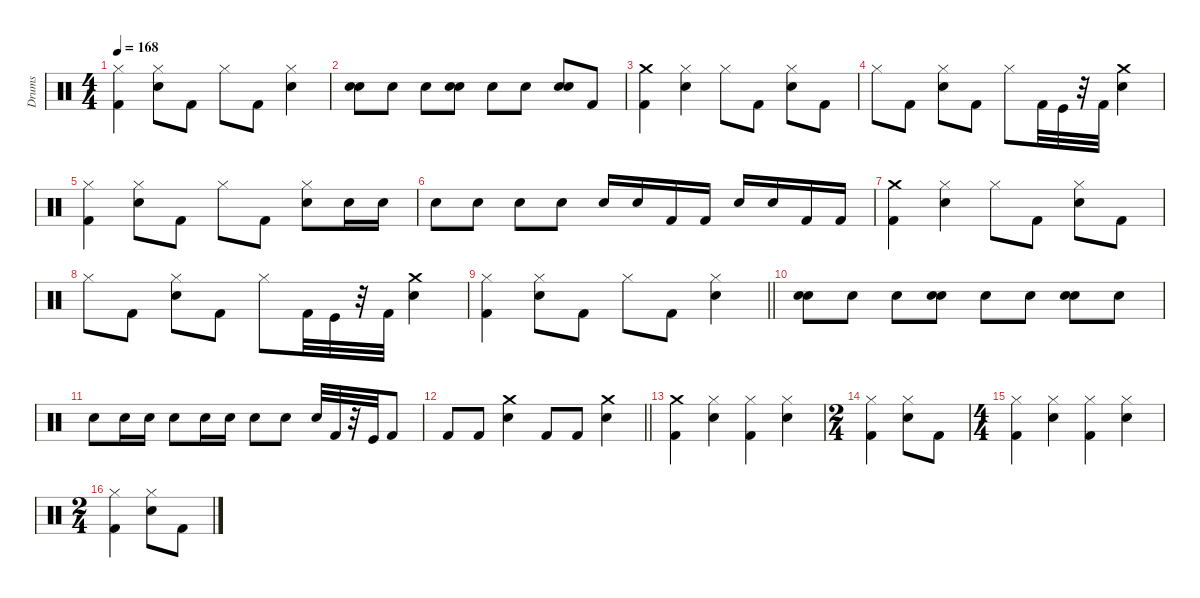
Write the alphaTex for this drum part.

\defaultSystemsLayout 4
\hideDynamics
\bracketExtendMode nobrackets
\firstSystemTrackNameMode fullname
\otherSystemsTrackNameOrientation horizontal
\track ("Drums" "drm.") {instrument percussion}
\staff {score}
\articulation defaults
\ts (4 4)
\tempo 168
\clef neutral
\ks c
("Kick (hit) 2" "Hi-Hat (closed)").4{dy fff beam Down} ("Hi-Hat (closed)" "Snare (hit) 2").8{beam Down} "Kick (hit) 2".8{beam Down} "Hi-Hat (closed)".8{beam Down} "Kick (hit) 2".8{beam Down} ("Snare (hit) 2" "Hi-Hat (closed)").4{beam Down} |
("Snare (hit) 2" "Snare (hit) 2").8{dy f beam Down} "Snare (hit) 2".8{dy fff beam Down} "Snare (hit) 2".8{beam Down} ("Snare (hit) 2" "Snare (hit) 2").8{dy f beam Down} "Snare (hit) 2".8{dy fff beam Down} "Snare (hit) 2".8{beam Down} ("Snare (hit) 2" "Snare (hit) 2").8{dy f beam Up} "Kick (hit) 2".8{dy fff beam Up} |
("Kick (hit) 2" "Crash medium (hit)").4{beam Down} ("Hi-Hat (closed)" "Snare (hit) 2").4{beam Down} "Hi-Hat (closed)".8{beam Down} "Kick (hit) 2".8{beam Down} ("Snare (hit) 2" "Hi-Hat (closed)").8{beam Down} "Kick (hit) 2".8{beam Down} |
"Hi-Hat (closed)".8{beam Down} "Kick (hit) 2".8{beam Down} ("Snare (hit) 2" "Hi-Hat (closed)").8{beam Down} "Kick (hit) 2".8{beam Down} "Hi-Hat (closed)".8{beam Down} "Kick (hit) 2".32{beam Down} "Kick (hit)".32{beam Down} r.32{beam Down} "Kick (hit) 2".32{beam Down} ("Crash medium (hit)" "Snare (hit) 2").4{beam Down} |
("Hi-Hat (closed)" "Kick (hit) 2").4{beam Down} ("Snare (hit) 2" "Hi-Hat (closed)").8{beam Down} "Kick (hit) 2".8{beam Down} "Hi-Hat (closed)".8{beam Down} "Kick (hit) 2".8{beam Down} ("Snare (hit) 2" "Hi-Hat (closed)").8{beam Down} "Snare (hit) 2".16{beam Down} "Snare (hit) 2".16{beam Down} |
"Snare (hit) 2".8{beam Down} "Snare (hit) 2".8{beam Down} "Snare (hit) 2".8{beam Down} "Snare (hit) 2".8{beam Down} "Snare (hit) 2".16{beam Up} "Snare (hit) 2".16{beam Up} "Kick (hit) 2".16{beam Up} "Kick (hit) 2".16{beam Up} "Snare (hit) 2".16{beam Up} "Snare (hit) 2".16{beam Up} "Kick (hit) 2".16{beam Up} "Kick (hit) 2".16{beam Up} |
("Kick (hit) 2" "Crash medium (hit)").4{beam Down} ("Hi-Hat (closed)" "Snare (hit) 2").4{beam Down} "Hi-Hat (closed)".8{beam Down} "Kick (hit) 2".8{beam Down} ("Snare (hit) 2" "Hi-Hat (closed)").8{beam Down} "Kick (hit) 2".8{beam Down} |
"Hi-Hat (closed)".8{beam Down} "Kick (hit) 2".8{beam Down} ("Snare (hit) 2" "Hi-Hat (closed)").8{beam Down} "Kick (hit) 2".8{beam Down} "Hi-Hat (closed)".8{beam Down} "Kick (hit) 2".32{beam Down} "Kick (hit)".32{beam Down} r.32{beam Down} "Kick (hit) 2".32{beam Down} ("Crash medium (hit)" "Snare (hit) 2").4{beam Down} |
\barLineRight lightlight
("Hi-Hat (closed)" "Kick (hit) 2").4{beam Down} ("Snare (hit) 2" "Hi-Hat (closed)").8{beam Down} "Kick (hit) 2".8{beam Down} "Hi-Hat (closed)".8{beam Down} "Kick (hit) 2".8{beam Down} ("Snare (hit) 2" "Hi-Hat (closed)").4{beam Down} |
("Snare (hit) 2" "Snare (hit) 2").8{dy f beam Down} "Snare (hit) 2".8{dy fff beam Down} "Snare (hit) 2".8{beam Down} ("Snare (hit) 2" "Snare (hit) 2").8{dy f beam Down} "Snare (hit) 2".8{dy fff beam Down} "Snare (hit) 2".8{beam Down} ("Snare (hit) 2" "Snare (hit) 2").8{dy f beam Down} "Snare (hit) 2".8{dy fff beam Down} |
"Snare (hit) 2".8{beam Down} "Snare (hit) 2".16{beam Down} "Snare (hit) 2".16{beam Down} "Snare (hit) 2".8{beam Down} "Snare (hit) 2".16{beam Down} "Snare (hit) 2".16{beam Down} "Snare (hit) 2".8{beam Down} "Snare (hit) 2".8{beam Down} "Snare (hit) 2".32{beam Up} "Kick (hit) 2".32{beam Up} r.32{beam Up} "Kick (hit)".32{beam Up} "Kick (hit) 2".8{beam Up} |
\barLineRight lightlight "Kick (hit) 2".8{beam Up} "Kick (hit) 2".8{beam Up}
("Crash medium (hit)" "Snare (hit) 2").4{beam Down} "Kick (hit) 2".8{beam Up} "Kick (hit) 2".8{beam Up} ("Crash medium (hit)" "Snare (hit) 2").4{beam Down} |
("Kick (hit) 2" "Crash medium (hit)").4{beam Down} ("Hi-Hat (closed)" "Snare (hit) 2").4{beam Down} ("Hi-Hat (closed)" "Kick (hit) 2").4{beam Down} ("Snare (hit) 2" "Hi-Hat (closed)").4{beam Down} |
\ts (2 4)
\beaming (8 2 2)
("Hi-Hat (closed)" "Kick (hit) 2").4{beam Down} ("Snare (hit) 2" "Hi-Hat (closed)").8{beam Down} "Kick (hit) 2".8{beam Down} |
\ts (4 4)
\beaming (8 2 2 2 2)
("Kick (hit) 2" "Hi-Hat (closed)").4{beam Down} ("Snare (hit) 2" "Hi-Hat (closed)").4{beam Down} ("Kick (hit) 2" "Hi-Hat (closed)").4{beam Down} ("Snare (hit) 2" "Hi-Hat (closed)").4{beam Down} |
\ts (2 4)
\beaming (8 2 2)
("Hi-Hat (closed)" "Kick (hit) 2").4{beam Down} ("Snare (hit) 2" "Hi-Hat (closed)").8{beam Down} "Kick (hit) 2".8{beam Down}
